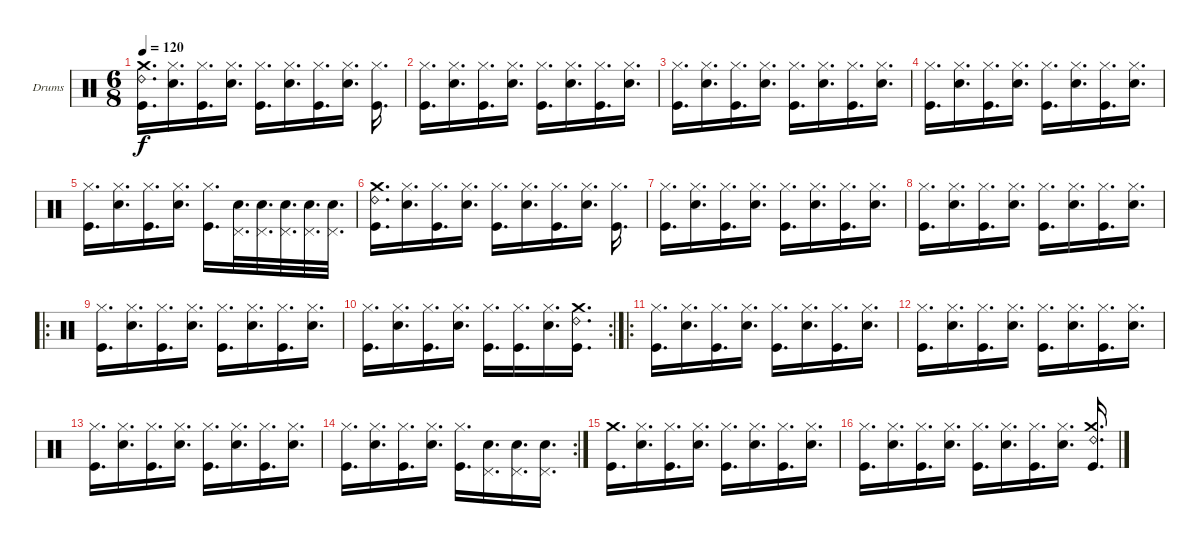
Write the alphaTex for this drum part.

\defaultSystemsLayout 4
\bracketExtendMode groupsimilarinstruments
\firstSystemTrackNameOrientation horizontal
\otherSystemsTrackNameOrientation horizontal
\track ("Drumkit" "Drums") {instrument percussion}
\staff {score}
\articulation defaults
\ts (6 8)
\tempo 120
\clef neutral
\ks c
("Kick (hit)" "Crash medium (hit)" "Ride (bell) 2").16{d dy f} ("Snare (hit) 2" "Hi-Hat (closed)").16{d} ("Kick (hit)" "Hi-Hat (closed)").16{d} ("Snare (hit) 2" "Hi-Hat (closed)").16{d} ("Kick (hit)" "Hi-Hat (closed)").16{d} ("Snare (hit) 2" "Hi-Hat (closed)").16{d} ("Kick (hit)" "Hi-Hat (closed)").16{d} ("Snare (hit) 2" "Hi-Hat (closed)").16{d} ("Kick (hit)" "Hi-Hat (closed)").16{d} |
("Kick (hit)" "Hi-Hat (closed)").16{d} ("Snare (hit) 2" "Hi-Hat (closed)").16{d} ("Kick (hit)" "Hi-Hat (closed)").16{d} ("Snare (hit) 2" "Hi-Hat (closed)").16{d} ("Kick (hit)" "Hi-Hat (closed)").16{d} ("Snare (hit) 2" "Hi-Hat (closed)").16{d} ("Kick (hit)" "Hi-Hat (closed)").16{d} ("Snare (hit) 2" "Hi-Hat (closed)").16{d} |
("Kick (hit)" "Hi-Hat (closed)").16{d} ("Snare (hit) 2" "Hi-Hat (closed)").16{d} ("Kick (hit)" "Hi-Hat (closed)").16{d} ("Snare (hit) 2" "Hi-Hat (closed)").16{d} ("Kick (hit)" "Hi-Hat (closed)").16{d} ("Snare (hit) 2" "Hi-Hat (closed)").16{d} ("Kick (hit)" "Hi-Hat (closed)").16{d} ("Snare (hit) 2" "Hi-Hat (closed)").16{d} |
("Kick (hit)" "Hi-Hat (closed)").16{d} ("Snare (hit) 2" "Hi-Hat (closed)").16{d} ("Kick (hit)" "Hi-Hat (closed)").16{d} ("Snare (hit) 2" "Hi-Hat (closed)").16{d} ("Kick (hit)" "Hi-Hat (closed)").16{d} ("Snare (hit) 2" "Hi-Hat (closed)").16{d} ("Kick (hit)" "Hi-Hat (closed)").16{d} ("Snare (hit) 2" "Hi-Hat (closed)").16{d} |
("Kick (hit)" "Hi-Hat (closed)").16{d} ("Snare (hit) 2" "Hi-Hat (closed)").16{d} ("Kick (hit)" "Hi-Hat (closed)").16{d} ("Snare (hit) 2" "Hi-Hat (closed)").16{d} ("Kick (hit)" "Hi-Hat (closed)").16{d} ("Pedal Hi-Hat (hit)" "Snare (hit) 2").32{d} ("Pedal Hi-Hat (hit)" "Snare (hit) 2").32{d} ("Pedal Hi-Hat (hit)" "Snare (hit) 2").32{d} ("Pedal Hi-Hat (hit)" "Snare (hit) 2").32{d} ("Pedal Hi-Hat (hit)" "Snare (hit) 2").32{d} |
("Kick (hit)" "Crash medium (hit)" "Ride (bell) 2").16{d} ("Snare (hit) 2" "Hi-Hat (closed)").16{d} ("Kick (hit)" "Hi-Hat (closed)").16{d} ("Snare (hit) 2" "Hi-Hat (closed)").16{d} ("Kick (hit)" "Hi-Hat (closed)").16{d} ("Snare (hit) 2" "Hi-Hat (closed)").16{d} ("Kick (hit)" "Hi-Hat (closed)").16{d} ("Snare (hit) 2" "Hi-Hat (closed)").16{d} ("Kick (hit)" "Hi-Hat (closed)").16{d} |
("Kick (hit)" "Hi-Hat (closed)").16{d} ("Snare (hit) 2" "Hi-Hat (closed)").16{d} ("Kick (hit)" "Hi-Hat (closed)").16{d} ("Snare (hit) 2" "Hi-Hat (closed)").16{d} ("Kick (hit)" "Hi-Hat (closed)").16{d} ("Snare (hit) 2" "Hi-Hat (closed)").16{d} ("Kick (hit)" "Hi-Hat (closed)").16{d} ("Snare (hit) 2" "Hi-Hat (closed)").16{d} |
("Kick (hit)" "Hi-Hat (closed)").16{d} ("Snare (hit) 2" "Hi-Hat (closed)").16{d} ("Kick (hit)" "Hi-Hat (closed)").16{d} ("Snare (hit) 2" "Hi-Hat (closed)").16{d} ("Kick (hit)" "Hi-Hat (closed)").16{d} ("Snare (hit) 2" "Hi-Hat (closed)").16{d} ("Kick (hit)" "Hi-Hat (closed)").16{d} ("Snare (hit) 2" "Hi-Hat (closed)").16{d} |
\ro
("Kick (hit)" "Hi-Hat (closed)").16{d} ("Snare (hit) 2" "Hi-Hat (closed)").16{d} ("Kick (hit)" "Hi-Hat (closed)").16{d} ("Snare (hit) 2" "Hi-Hat (closed)").16{d} ("Kick (hit)" "Hi-Hat (closed)").16{d} ("Snare (hit) 2" "Hi-Hat (closed)").16{d} ("Kick (hit)" "Hi-Hat (closed)").16{d} ("Snare (hit) 2" "Hi-Hat (closed)").16{d} |
\rc 2
("Kick (hit)" "Hi-Hat (closed)").16{d} ("Snare (hit) 2" "Hi-Hat (closed)").16{d} ("Kick (hit)" "Hi-Hat (closed)").16{d} ("Snare (hit) 2" "Hi-Hat (closed)").16{d} ("Kick (hit)" "Hi-Hat (closed)").16{d} ("Kick (hit)" "Hi-Hat (closed)").16{d} ("Snare (hit) 2" "Hi-Hat (closed)").16{d} ("Kick (hit)" "Crash medium (hit)" "Ride (bell) 2").16{d} |
\ro
("Kick (hit)" "Hi-Hat (closed)").16{d} ("Snare (hit) 2" "Hi-Hat (closed)").16{d} ("Kick (hit)" "Hi-Hat (closed)").16{d} ("Snare (hit) 2" "Hi-Hat (closed)").16{d} ("Kick (hit)" "Hi-Hat (closed)").16{d} ("Snare (hit) 2" "Hi-Hat (closed)").16{d} ("Kick (hit)" "Hi-Hat (closed)").16{d} ("Snare (hit) 2" "Hi-Hat (closed)").16{d} |
("Kick (hit)" "Hi-Hat (closed)").16{d} ("Snare (hit) 2" "Hi-Hat (closed)").16{d} ("Kick (hit)" "Hi-Hat (closed)").16{d} ("Snare (hit) 2" "Hi-Hat (closed)").16{d} ("Kick (hit)" "Hi-Hat (closed)").16{d} ("Snare (hit) 2" "Hi-Hat (closed)").16{d} ("Kick (hit)" "Hi-Hat (closed)").16{d} ("Snare (hit) 2" "Hi-Hat (closed)").16{d} |
("Kick (hit)" "Hi-Hat (closed)").16{d} ("Snare (hit) 2" "Hi-Hat (closed)").16{d} ("Kick (hit)" "Hi-Hat (closed)").16{d} ("Snare (hit) 2" "Hi-Hat (closed)").16{d} ("Kick (hit)" "Hi-Hat (closed)").16{d} ("Snare (hit) 2" "Hi-Hat (closed)").16{d} ("Kick (hit)" "Hi-Hat (closed)").16{d} ("Snare (hit) 2" "Hi-Hat (closed)").16{d} |
\rc 2
("Kick (hit)" "Hi-Hat (closed)").16{d} ("Snare (hit) 2" "Hi-Hat (closed)").16{d} ("Kick (hit)" "Hi-Hat (closed)").16{d} ("Snare (hit) 2" "Hi-Hat (closed)").16{d} ("Kick (hit)" "Hi-Hat (closed)").16{d} ("Pedal Hi-Hat (hit)" "Snare (hit) 2").16{d} ("Pedal Hi-Hat (hit)" "Snare (hit) 2").16{d} ("Pedal Hi-Hat (hit)" "Snare (hit) 2").16{d} |
("Kick (hit)" "Crash medium (hit)").16{d} ("Snare (hit) 2" "Hi-Hat (closed)").16{d} ("Kick (hit)" "Hi-Hat (closed)").16{d} ("Snare (hit) 2" "Hi-Hat (closed)").16{d} ("Kick (hit)" "Hi-Hat (closed)").16{d} ("Snare (hit) 2" "Hi-Hat (closed)").16{d} ("Kick (hit)" "Hi-Hat (closed)").16{d} ("Snare (hit) 2" "Hi-Hat (closed)").16{d} |
("Kick (hit)" "Hi-Hat (closed)").16{d} ("Snare (hit) 2" "Hi-Hat (closed)").16{d} ("Kick (hit)" "Hi-Hat (closed)").16{d} ("Snare (hit) 2" "Hi-Hat (closed)").16{d} ("Kick (hit)" "Hi-Hat (closed)").16{d} ("Snare (hit) 2" "Hi-Hat (closed)").16{d} ("Kick (hit)" "Hi-Hat (closed)").16{d} ("Snare (hit) 2" "Hi-Hat (closed)").16{d} ("Kick (hit)" "Crash medium (hit)" "Ride (bell) 2").16{d}
